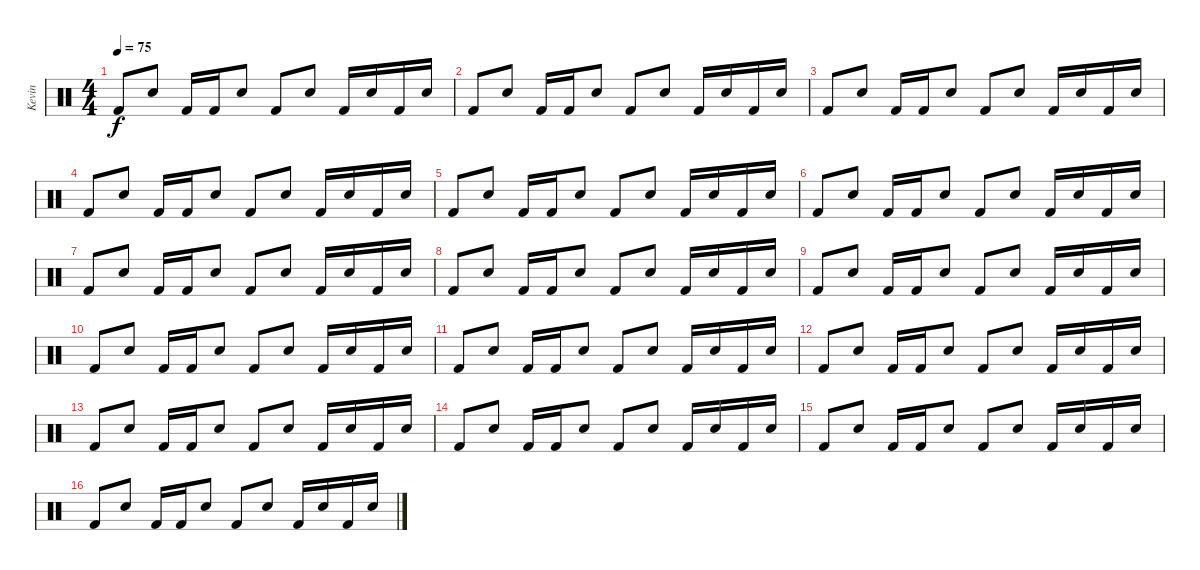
\track ("Kevin" "Kevin") {instrument percussion}
\staff {score}
\articulation defaults
\ts (4 4)
\tempo 75
\clef neutral
\ks c "Kick (hit) 2".8{dy f} "Snare (hit) 2".8 "Kick (hit) 2".16 "Kick (hit) 2".16 "Snare (hit) 2".8 "Kick (hit) 2".8 "Snare (hit) 2".8 "Kick (hit) 2".16 "Snare (hit) 2".16 "Kick (hit) 2".16 "Snare (hit) 2".16
|
"Kick (hit) 2".8 "Snare (hit) 2".8 "Kick (hit) 2".16 "Kick (hit) 2".16 "Snare (hit) 2".8 "Kick (hit) 2".8 "Snare (hit) 2".8 "Kick (hit) 2".16 "Snare (hit) 2".16 "Kick (hit) 2".16 "Snare (hit) 2".16 |
"Kick (hit) 2".8 "Snare (hit) 2".8 "Kick (hit) 2".16 "Kick (hit) 2".16 "Snare (hit) 2".8 "Kick (hit) 2".8 "Snare (hit) 2".8 "Kick (hit) 2".16 "Snare (hit) 2".16 "Kick (hit) 2".16 "Snare (hit) 2".16 |
"Kick (hit) 2".8 "Snare (hit) 2".8 "Kick (hit) 2".16 "Kick (hit) 2".16 "Snare (hit) 2".8 "Kick (hit) 2".8 "Snare (hit) 2".8 "Kick (hit) 2".16 "Snare (hit) 2".16 "Kick (hit) 2".16 "Snare (hit) 2".16 |
"Kick (hit) 2".8 "Snare (hit) 2".8 "Kick (hit) 2".16 "Kick (hit) 2".16 "Snare (hit) 2".8 "Kick (hit) 2".8 "Snare (hit) 2".8 "Kick (hit) 2".16 "Snare (hit) 2".16 "Kick (hit) 2".16 "Snare (hit) 2".16 |
"Kick (hit) 2".8 "Snare (hit) 2".8 "Kick (hit) 2".16 "Kick (hit) 2".16 "Snare (hit) 2".8 "Kick (hit) 2".8 "Snare (hit) 2".8 "Kick (hit) 2".16 "Snare (hit) 2".16 "Kick (hit) 2".16 "Snare (hit) 2".16 |
"Kick (hit) 2".8 "Snare (hit) 2".8 "Kick (hit) 2".16 "Kick (hit) 2".16 "Snare (hit) 2".8 "Kick (hit) 2".8 "Snare (hit) 2".8 "Kick (hit) 2".16 "Snare (hit) 2".16 "Kick (hit) 2".16 "Snare (hit) 2".16 |
"Kick (hit) 2".8 "Snare (hit) 2".8 "Kick (hit) 2".16 "Kick (hit) 2".16 "Snare (hit) 2".8 "Kick (hit) 2".8 "Snare (hit) 2".8 "Kick (hit) 2".16 "Snare (hit) 2".16 "Kick (hit) 2".16 "Snare (hit) 2".16 |
"Kick (hit) 2".8 "Snare (hit) 2".8 "Kick (hit) 2".16 "Kick (hit) 2".16 "Snare (hit) 2".8 "Kick (hit) 2".8 "Snare (hit) 2".8 "Kick (hit) 2".16 "Snare (hit) 2".16 "Kick (hit) 2".16 "Snare (hit) 2".16 |
"Kick (hit) 2".8 "Snare (hit) 2".8 "Kick (hit) 2".16 "Kick (hit) 2".16 "Snare (hit) 2".8 "Kick (hit) 2".8 "Snare (hit) 2".8 "Kick (hit) 2".16 "Snare (hit) 2".16 "Kick (hit) 2".16 "Snare (hit) 2".16 |
"Kick (hit) 2".8 "Snare (hit) 2".8 "Kick (hit) 2".16 "Kick (hit) 2".16 "Snare (hit) 2".8 "Kick (hit) 2".8 "Snare (hit) 2".8 "Kick (hit) 2".16 "Snare (hit) 2".16 "Kick (hit) 2".16 "Snare (hit) 2".16 |
"Kick (hit) 2".8 "Snare (hit) 2".8 "Kick (hit) 2".16 "Kick (hit) 2".16 "Snare (hit) 2".8 "Kick (hit) 2".8 "Snare (hit) 2".8 "Kick (hit) 2".16 "Snare (hit) 2".16 "Kick (hit) 2".16 "Snare (hit) 2".16 |
"Kick (hit) 2".8 "Snare (hit) 2".8 "Kick (hit) 2".16 "Kick (hit) 2".16 "Snare (hit) 2".8 "Kick (hit) 2".8 "Snare (hit) 2".8 "Kick (hit) 2".16 "Snare (hit) 2".16 "Kick (hit) 2".16 "Snare (hit) 2".16 |
"Kick (hit) 2".8 "Snare (hit) 2".8 "Kick (hit) 2".16 "Kick (hit) 2".16 "Snare (hit) 2".8 "Kick (hit) 2".8 "Snare (hit) 2".8 "Kick (hit) 2".16 "Snare (hit) 2".16 "Kick (hit) 2".16 "Snare (hit) 2".16 |
"Kick (hit) 2".8 "Snare (hit) 2".8 "Kick (hit) 2".16 "Kick (hit) 2".16 "Snare (hit) 2".8 "Kick (hit) 2".8 "Snare (hit) 2".8 "Kick (hit) 2".16 "Snare (hit) 2".16 "Kick (hit) 2".16 "Snare (hit) 2".16 |
"Kick (hit) 2".8 "Snare (hit) 2".8 "Kick (hit) 2".16 "Kick (hit) 2".16 "Snare (hit) 2".8 "Kick (hit) 2".8 "Snare (hit) 2".8 "Kick (hit) 2".16 "Snare (hit) 2".16 "Kick (hit) 2".16 "Snare (hit) 2".16
